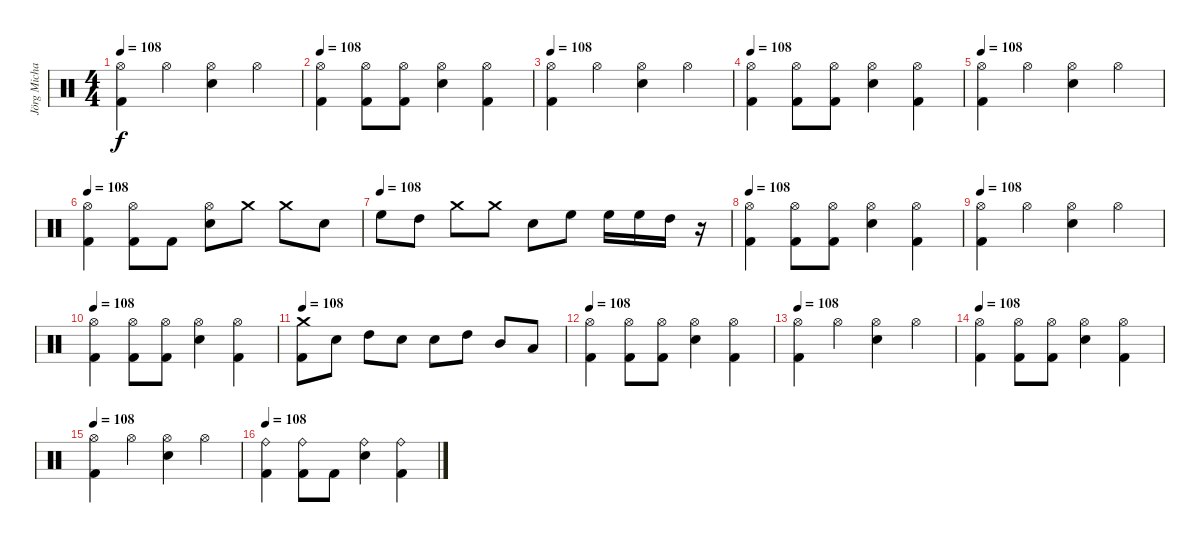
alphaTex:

\track ("Jörg Michael (Drums)" "Jörg Micha") {instrument percussion}
\staff {score}
\articulation defaults
\ts (4 4)
\tempo 108
\clef neutral
\ks c
("Kick (hit) 2" "Hi-Hat (open)").4{dy f} "Hi-Hat (open)".4 ("Snare (hit) 2" "Hi-Hat (open)").4 "Hi-Hat (open)".4 |
\tempo 108
("Kick (hit) 2" "Hi-Hat (open)").4 ("Kick (hit) 2" "Hi-Hat (open)").8 ("Kick (hit) 2" "Hi-Hat (open)").8 ("Snare (hit) 2" "Hi-Hat (open)").4 ("Kick (hit) 2" "Hi-Hat (open)").4 |
\tempo 108
("Kick (hit) 2" "Hi-Hat (open)").4 "Hi-Hat (open)".4 ("Snare (hit) 2" "Hi-Hat (open)").4 "Hi-Hat (open)".4 |
\tempo 108
("Kick (hit) 2" "Hi-Hat (open)").4 ("Kick (hit) 2" "Hi-Hat (open)").8 ("Kick (hit) 2" "Hi-Hat (open)").8 ("Snare (hit) 2" "Hi-Hat (open)").4 ("Kick (hit) 2" "Hi-Hat (open)").4 |
\tempo 108
("Kick (hit) 2" "Hi-Hat (open)").4 "Hi-Hat (open)".4 ("Snare (hit) 2" "Hi-Hat (open)").4 "Hi-Hat (open)".4 |
\tempo 108
("Kick (hit) 2" "Hi-Hat (open)").4 ("Kick (hit) 2" "Hi-Hat (open)").8 "Kick (hit) 2".8 ("Snare (hit) 2" "Hi-Hat (open)").8 "Crash medium (hit)".8 "Crash medium (hit)".8 "Snare (hit) 2".8 |
\tempo (108)
"High Floor Tom (hit)".8 "High Tom (hit)".8 "Crash medium (hit)".8 "Crash medium (hit)".8 "Snare (hit) 2".8 "High Floor Tom (hit)".8 "High Floor Tom (hit)".16 "High Floor Tom (hit)".16 "High Tom (hit)".16 r.16 |
\tempo 108
("Kick (hit) 2" "Hi-Hat (open)").4 ("Kick (hit) 2" "Hi-Hat (open)").8 ("Kick (hit) 2" "Hi-Hat (open)").8 ("Snare (hit) 2" "Hi-Hat (open)").4 ("Kick (hit) 2" "Hi-Hat (open)").4 |
\tempo 108
("Kick (hit) 2" "Hi-Hat (open)").4 "Hi-Hat (open)".4 ("Snare (hit) 2" "Hi-Hat (open)").4 "Hi-Hat (open)".4 |
\tempo 108
("Kick (hit) 2" "Hi-Hat (open)").4 ("Kick (hit) 2" "Hi-Hat (open)").8 ("Kick (hit) 2" "Hi-Hat (open)").8 ("Snare (hit) 2" "Hi-Hat (open)").4 ("Kick (hit) 2" "Hi-Hat (open)").4 |
\tempo 108
("Kick (hit) 2" "Crash medium (hit)").8 "Snare (hit) 2".8 "High Tom (hit)".8 "Snare (hit) 2".8 "Snare (hit) 2".8 "High Tom (hit)".8 "Mid Tom (hit)".8 "Low Tom (hit)".8 |
\tempo 108
("Kick (hit) 2" "Hi-Hat (open)").4 ("Kick (hit) 2" "Hi-Hat (open)").8 ("Kick (hit) 2" "Hi-Hat (open)").8 ("Snare (hit) 2" "Hi-Hat (open)").4 ("Kick (hit) 2" "Hi-Hat (open)").4 |
\tempo 108
("Kick (hit) 2" "Hi-Hat (open)").4 "Hi-Hat (open)".4 ("Snare (hit) 2" "Hi-Hat (open)").4 "Hi-Hat (open)".4 |
\tempo 108
("Kick (hit) 2" "Hi-Hat (open)").4 ("Kick (hit) 2" "Hi-Hat (open)").8 ("Kick (hit) 2" "Hi-Hat (open)").8 ("Snare (hit) 2" "Hi-Hat (open)").4 ("Kick (hit) 2" "Hi-Hat (open)").4 |
\tempo 108
("Kick (hit) 2" "Hi-Hat (open)").4 "Hi-Hat (open)".4 ("Snare (hit) 2" "Hi-Hat (open)").4 "Hi-Hat (open)".4 |
\tempo 108
("Kick (hit) 2" "Ride (bell)").4 ("Kick (hit) 2" "Ride (bell)").8 "Kick (hit) 2".8 ("Snare (hit) 2" "Ride (bell)").4 ("Kick (hit) 2" "Ride (bell)").4
